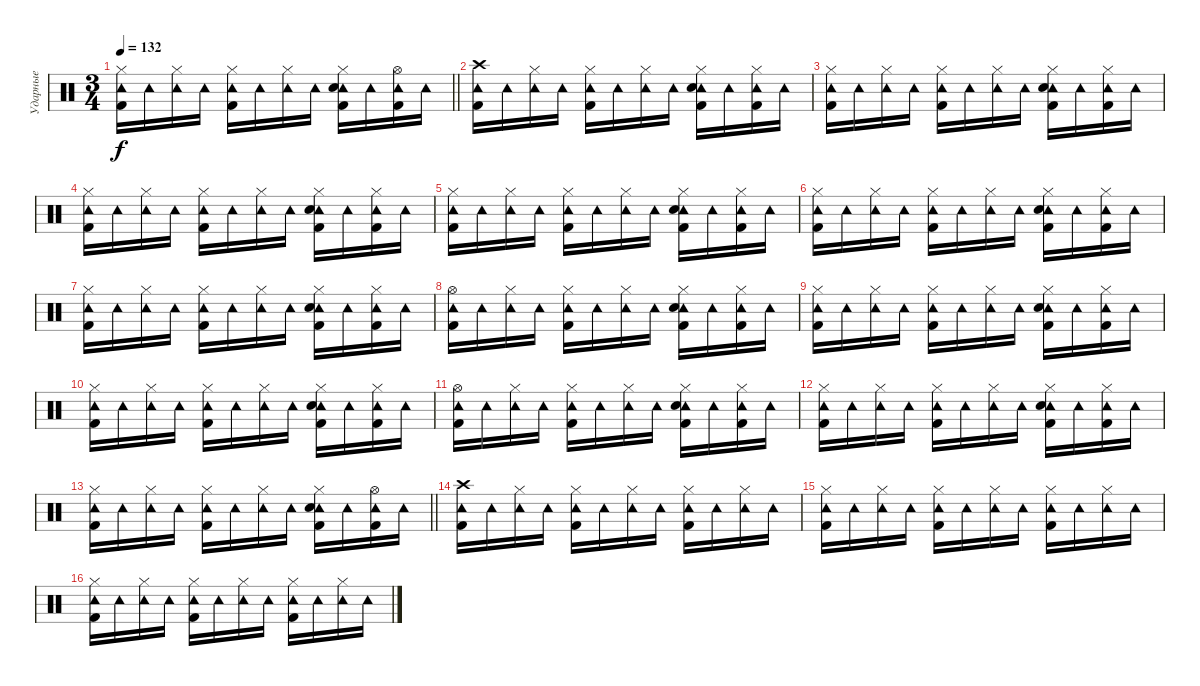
\track ("Ударные" "Ударные") {instrument percussion}
\staff {score}
\articulation defaults
\ts (3 4)
\tempo 132
\clef neutral
\barLineRight lightlight
\ks c
("Hi-Hat (closed)" "Tambourine (hit)" "Kick (hit) 2").16{dy f} "Tambourine (hit)".16 ("Hi-Hat (closed)" "Tambourine (hit)").16 "Tambourine (hit)".16 ("Hi-Hat (closed)" "Tambourine (hit)" "Kick (hit) 2").16 "Tambourine (hit)".16 ("Hi-Hat (closed)" "Tambourine (hit)").16 "Tambourine (hit)".16 ("Hi-Hat (closed)" "Tambourine (hit)" "Kick (hit) 2" "Electric Snare (hit)").16 "Tambourine (hit)".16 ("Hi-Hat (open)" "Tambourine (hit)" "Kick (hit) 2").16 "Tambourine (hit)".16 |
\section ("" "")
("Crash high (hit)" "Tambourine (hit)" "Kick (hit) 2").16 "Tambourine (hit)".16 ("Hi-Hat (closed)" "Tambourine (hit)").16 "Tambourine (hit)".16 ("Hi-Hat (closed)" "Tambourine (hit)" "Kick (hit) 2").16 "Tambourine (hit)".16 ("Hi-Hat (closed)" "Tambourine (hit)").16 "Tambourine (hit)".16 ("Hi-Hat (closed)" "Tambourine (hit)" "Kick (hit) 2" "Electric Snare (hit)").16 "Tambourine (hit)".16 ("Hi-Hat (closed)" "Tambourine (hit)" "Kick (hit) 2").16 "Tambourine (hit)".16 |
("Hi-Hat (closed)" "Tambourine (hit)" "Kick (hit) 2").16 "Tambourine (hit)".16 ("Hi-Hat (closed)" "Tambourine (hit)").16 "Tambourine (hit)".16 ("Hi-Hat (closed)" "Tambourine (hit)" "Kick (hit) 2").16 "Tambourine (hit)".16 ("Hi-Hat (closed)" "Tambourine (hit)").16 "Tambourine (hit)".16 ("Hi-Hat (closed)" "Tambourine (hit)" "Kick (hit) 2" "Electric Snare (hit)").16 "Tambourine (hit)".16 ("Hi-Hat (closed)" "Tambourine (hit)" "Kick (hit) 2").16 "Tambourine (hit)".16 |
("Hi-Hat (closed)" "Tambourine (hit)" "Kick (hit) 2").16 "Tambourine (hit)".16 ("Hi-Hat (closed)" "Tambourine (hit)").16 "Tambourine (hit)".16 ("Hi-Hat (closed)" "Tambourine (hit)" "Kick (hit) 2").16 "Tambourine (hit)".16 ("Hi-Hat (closed)" "Tambourine (hit)").16 "Tambourine (hit)".16 ("Hi-Hat (closed)" "Tambourine (hit)" "Kick (hit) 2" "Electric Snare (hit)").16 "Tambourine (hit)".16 ("Hi-Hat (closed)" "Tambourine (hit)" "Kick (hit) 2").16 "Tambourine (hit)".16 |
("Hi-Hat (closed)" "Tambourine (hit)" "Kick (hit) 2").16 "Tambourine (hit)".16 ("Hi-Hat (closed)" "Tambourine (hit)").16 "Tambourine (hit)".16 ("Hi-Hat (closed)" "Tambourine (hit)" "Kick (hit) 2").16 "Tambourine (hit)".16 ("Hi-Hat (closed)" "Tambourine (hit)").16 "Tambourine (hit)".16 ("Hi-Hat (closed)" "Tambourine (hit)" "Kick (hit) 2" "Electric Snare (hit)").16 "Tambourine (hit)".16 ("Hi-Hat (closed)" "Tambourine (hit)" "Kick (hit) 2").16 "Tambourine (hit)".16 |
("Hi-Hat (closed)" "Tambourine (hit)" "Kick (hit) 2").16 "Tambourine (hit)".16 ("Hi-Hat (closed)" "Tambourine (hit)").16 "Tambourine (hit)".16 ("Hi-Hat (closed)" "Tambourine (hit)" "Kick (hit) 2").16 "Tambourine (hit)".16 ("Hi-Hat (closed)" "Tambourine (hit)").16 "Tambourine (hit)".16 ("Hi-Hat (closed)" "Tambourine (hit)" "Kick (hit) 2" "Electric Snare (hit)").16 "Tambourine (hit)".16 ("Hi-Hat (closed)" "Tambourine (hit)" "Kick (hit) 2").16 "Tambourine (hit)".16 |
("Hi-Hat (closed)" "Tambourine (hit)" "Kick (hit) 2").16 "Tambourine (hit)".16 ("Hi-Hat (closed)" "Tambourine (hit)").16 "Tambourine (hit)".16 ("Hi-Hat (closed)" "Tambourine (hit)" "Kick (hit) 2").16 "Tambourine (hit)".16 ("Hi-Hat (closed)" "Tambourine (hit)").16 "Tambourine (hit)".16 ("Hi-Hat (closed)" "Tambourine (hit)" "Kick (hit) 2" "Electric Snare (hit)").16 "Tambourine (hit)".16 ("Hi-Hat (closed)" "Tambourine (hit)" "Kick (hit) 2").16 "Tambourine (hit)".16 |
("Hi-Hat (open)" "Tambourine (hit)" "Kick (hit) 2").16 "Tambourine (hit)".16 ("Hi-Hat (closed)" "Tambourine (hit)").16 "Tambourine (hit)".16 ("Hi-Hat (closed)" "Tambourine (hit)" "Kick (hit) 2").16 "Tambourine (hit)".16 ("Hi-Hat (closed)" "Tambourine (hit)").16 "Tambourine (hit)".16 ("Hi-Hat (closed)" "Tambourine (hit)" "Kick (hit) 2" "Electric Snare (hit)").16 "Tambourine (hit)".16 ("Hi-Hat (closed)" "Tambourine (hit)" "Kick (hit) 2").16 "Tambourine (hit)".16 |
("Hi-Hat (closed)" "Tambourine (hit)" "Kick (hit) 2").16 "Tambourine (hit)".16 ("Hi-Hat (closed)" "Tambourine (hit)").16 "Tambourine (hit)".16 ("Hi-Hat (closed)" "Tambourine (hit)" "Kick (hit) 2").16 "Tambourine (hit)".16 ("Hi-Hat (closed)" "Tambourine (hit)").16 "Tambourine (hit)".16 ("Hi-Hat (closed)" "Tambourine (hit)" "Kick (hit) 2" "Electric Snare (hit)").16 "Tambourine (hit)".16 ("Hi-Hat (closed)" "Tambourine (hit)" "Kick (hit) 2").16 "Tambourine (hit)".16 |
("Hi-Hat (closed)" "Tambourine (hit)" "Kick (hit) 2").16 "Tambourine (hit)".16 ("Hi-Hat (closed)" "Tambourine (hit)").16 "Tambourine (hit)".16 ("Hi-Hat (closed)" "Tambourine (hit)" "Kick (hit) 2").16 "Tambourine (hit)".16 ("Hi-Hat (closed)" "Tambourine (hit)").16 "Tambourine (hit)".16 ("Hi-Hat (closed)" "Tambourine (hit)" "Kick (hit) 2" "Electric Snare (hit)").16 "Tambourine (hit)".16 ("Hi-Hat (closed)" "Tambourine (hit)" "Kick (hit) 2").16 "Tambourine (hit)".16 |
("Hi-Hat (open)" "Tambourine (hit)" "Kick (hit) 2").16 "Tambourine (hit)".16 ("Hi-Hat (closed)" "Tambourine (hit)").16 "Tambourine (hit)".16 ("Hi-Hat (closed)" "Tambourine (hit)" "Kick (hit) 2").16 "Tambourine (hit)".16 ("Hi-Hat (closed)" "Tambourine (hit)").16 "Tambourine (hit)".16 ("Hi-Hat (closed)" "Tambourine (hit)" "Kick (hit) 2" "Electric Snare (hit)").16 "Tambourine (hit)".16 ("Hi-Hat (closed)" "Tambourine (hit)" "Kick (hit) 2").16 "Tambourine (hit)".16 |
("Hi-Hat (closed)" "Tambourine (hit)" "Kick (hit) 2").16 "Tambourine (hit)".16 ("Hi-Hat (closed)" "Tambourine (hit)").16 "Tambourine (hit)".16 ("Hi-Hat (closed)" "Tambourine (hit)" "Kick (hit) 2").16 "Tambourine (hit)".16 ("Hi-Hat (closed)" "Tambourine (hit)").16 "Tambourine (hit)".16 ("Hi-Hat (closed)" "Tambourine (hit)" "Kick (hit) 2" "Electric Snare (hit)").16 "Tambourine (hit)".16 ("Hi-Hat (closed)" "Tambourine (hit)" "Kick (hit) 2").16 "Tambourine (hit)".16 |
\barLineRight lightlight
("Hi-Hat (closed)" "Tambourine (hit)" "Kick (hit) 2").16 "Tambourine (hit)".16 ("Hi-Hat (closed)" "Tambourine (hit)").16 "Tambourine (hit)".16 ("Hi-Hat (closed)" "Tambourine (hit)" "Kick (hit) 2").16 "Tambourine (hit)".16 ("Hi-Hat (closed)" "Tambourine (hit)").16 "Tambourine (hit)".16 ("Hi-Hat (closed)" "Tambourine (hit)" "Kick (hit) 2" "Electric Snare (hit)").16 "Tambourine (hit)".16 ("Hi-Hat (open)" "Tambourine (hit)" "Kick (hit) 2").16 "Tambourine (hit)".16 |
\section ("" "")
("Crash high (hit)" "Tambourine (hit)" "Kick (hit) 2").16 "Tambourine (hit)".16 ("Hi-Hat (closed)" "Tambourine (hit)").16 "Tambourine (hit)".16 ("Hi-Hat (closed)" "Tambourine (hit)" "Kick (hit) 2").16 "Tambourine (hit)".16 ("Hi-Hat (closed)" "Tambourine (hit)").16 "Tambourine (hit)".16 ("Hi-Hat (closed)" "Tambourine (hit)" "Kick (hit) 2").16 "Tambourine (hit)".16 ("Hi-Hat (closed)" "Tambourine (hit)").16 "Tambourine (hit)".16 |
("Hi-Hat (closed)" "Tambourine (hit)" "Kick (hit) 2").16 "Tambourine (hit)".16 ("Hi-Hat (closed)" "Tambourine (hit)").16 "Tambourine (hit)".16 ("Hi-Hat (closed)" "Tambourine (hit)" "Kick (hit) 2").16 "Tambourine (hit)".16 ("Hi-Hat (closed)" "Tambourine (hit)").16 "Tambourine (hit)".16 ("Hi-Hat (closed)" "Tambourine (hit)" "Kick (hit) 2").16 "Tambourine (hit)".16 ("Hi-Hat (closed)" "Tambourine (hit)").16 "Tambourine (hit)".16 |
("Hi-Hat (closed)" "Tambourine (hit)" "Kick (hit) 2").16 "Tambourine (hit)".16 ("Hi-Hat (closed)" "Tambourine (hit)").16 "Tambourine (hit)".16 ("Hi-Hat (closed)" "Tambourine (hit)" "Kick (hit) 2").16 "Tambourine (hit)".16 ("Hi-Hat (closed)" "Tambourine (hit)").16 "Tambourine (hit)".16 ("Hi-Hat (closed)" "Tambourine (hit)" "Kick (hit) 2").16 "Tambourine (hit)".16 ("Hi-Hat (closed)" "Tambourine (hit)").16 "Tambourine (hit)".16
